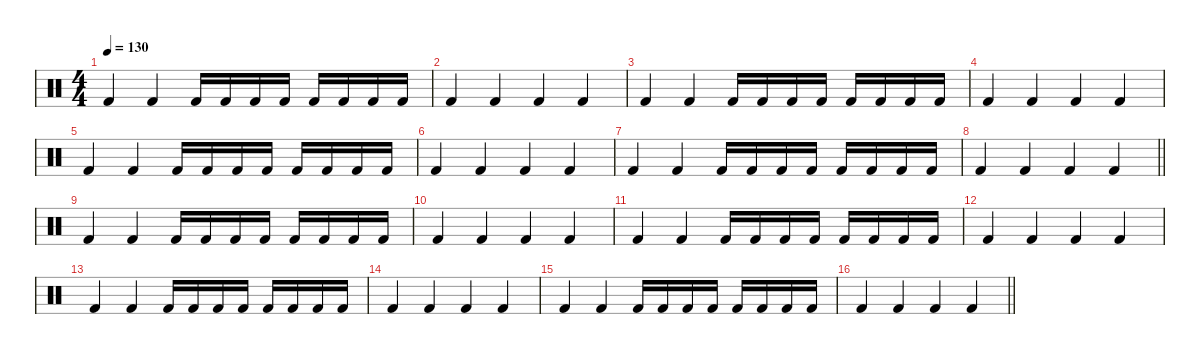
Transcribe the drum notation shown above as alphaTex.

\defaultSystemsLayout 4
\hideDynamics
\bracketExtendMode nobrackets
\singleTrackTrackNamePolicy hidden
\multiTrackTrackNamePolicy hidden
\otherSystemsTrackNameOrientation horizontal
\track ("Percussion" "drm.") {defaultSystemsLayout 4 instrument percussion}
\staff {score}
\articulation defaults
\ts (4 4)
\beaming (8 2 2 2 2)
\tempo 130
\clef neutral
\ks c "Kick (hit) 2".4{dy f beam Up} "Kick (hit) 2".4{beam Up} "Kick (hit) 2".16{beam Up} "Kick (hit) 2".16{beam Up} "Kick (hit) 2".16{beam Up} "Kick (hit) 2".16{beam Up} "Kick (hit) 2".16{beam Up} "Kick (hit) 2".16{beam Up} "Kick (hit) 2".16{beam Up} "Kick (hit) 2".16{beam Up}
|
"Kick (hit) 2".4{beam Up} "Kick (hit) 2".4{beam Up} "Kick (hit) 2".4{beam Up} "Kick (hit) 2".4{beam Up} |
"Kick (hit) 2".4{beam Up} "Kick (hit) 2".4{beam Up} "Kick (hit) 2".16{beam Up} "Kick (hit) 2".16{beam Up} "Kick (hit) 2".16{beam Up} "Kick (hit) 2".16{beam Up} "Kick (hit) 2".16{beam Up} "Kick (hit) 2".16{beam Up} "Kick (hit) 2".16{beam Up} "Kick (hit) 2".16{beam Up} |
"Kick (hit) 2".4{beam Up} "Kick (hit) 2".4{beam Up} "Kick (hit) 2".4{beam Up} "Kick (hit) 2".4{beam Up} |
"Kick (hit) 2".4{beam Up} "Kick (hit) 2".4{beam Up} "Kick (hit) 2".16{beam Up} "Kick (hit) 2".16{beam Up} "Kick (hit) 2".16{beam Up} "Kick (hit) 2".16{beam Up} "Kick (hit) 2".16{beam Up} "Kick (hit) 2".16{beam Up} "Kick (hit) 2".16{beam Up} "Kick (hit) 2".16{beam Up} |
"Kick (hit) 2".4{beam Up} "Kick (hit) 2".4{beam Up} "Kick (hit) 2".4{beam Up} "Kick (hit) 2".4{beam Up} |
"Kick (hit) 2".4{beam Up} "Kick (hit) 2".4{beam Up} "Kick (hit) 2".16{beam Up} "Kick (hit) 2".16{beam Up} "Kick (hit) 2".16{beam Up} "Kick (hit) 2".16{beam Up} "Kick (hit) 2".16{beam Up} "Kick (hit) 2".16{beam Up} "Kick (hit) 2".16{beam Up} "Kick (hit) 2".16{beam Up} |
\barLineRight lightlight "Kick (hit) 2".4{beam Up} "Kick (hit) 2".4{beam Up} "Kick (hit) 2".4{beam Up} "Kick (hit) 2".4{beam Up}
|
"Kick (hit) 2".4{beam Up} "Kick (hit) 2".4{beam Up} "Kick (hit) 2".16{beam Up} "Kick (hit) 2".16{beam Up} "Kick (hit) 2".16{beam Up} "Kick (hit) 2".16{beam Up} "Kick (hit) 2".16{beam Up} "Kick (hit) 2".16{beam Up} "Kick (hit) 2".16{beam Up} "Kick (hit) 2".16{beam Up} |
"Kick (hit) 2".4{beam Up} "Kick (hit) 2".4{beam Up} "Kick (hit) 2".4{beam Up} "Kick (hit) 2".4{beam Up} |
"Kick (hit) 2".4{beam Up} "Kick (hit) 2".4{beam Up} "Kick (hit) 2".16{beam Up} "Kick (hit) 2".16{beam Up} "Kick (hit) 2".16{beam Up} "Kick (hit) 2".16{beam Up} "Kick (hit) 2".16{beam Up} "Kick (hit) 2".16{beam Up} "Kick (hit) 2".16{beam Up} "Kick (hit) 2".16{beam Up} |
"Kick (hit) 2".4{beam Up} "Kick (hit) 2".4{beam Up} "Kick (hit) 2".4{beam Up} "Kick (hit) 2".4{beam Up} |
"Kick (hit) 2".4{beam Up} "Kick (hit) 2".4{beam Up} "Kick (hit) 2".16{beam Up} "Kick (hit) 2".16{beam Up} "Kick (hit) 2".16{beam Up} "Kick (hit) 2".16{beam Up} "Kick (hit) 2".16{beam Up} "Kick (hit) 2".16{beam Up} "Kick (hit) 2".16{beam Up} "Kick (hit) 2".16{beam Up} |
"Kick (hit) 2".4{beam Up} "Kick (hit) 2".4{beam Up} "Kick (hit) 2".4{beam Up} "Kick (hit) 2".4{beam Up} |
"Kick (hit) 2".4{beam Up} "Kick (hit) 2".4{beam Up} "Kick (hit) 2".16{beam Up} "Kick (hit) 2".16{beam Up} "Kick (hit) 2".16{beam Up} "Kick (hit) 2".16{beam Up} "Kick (hit) 2".16{beam Up} "Kick (hit) 2".16{beam Up} "Kick (hit) 2".16{beam Up} "Kick (hit) 2".16{beam Up} |
\barLineRight lightlight "Kick (hit) 2".4{beam Up} "Kick (hit) 2".4{beam Up} "Kick (hit) 2".4{beam Up} "Kick (hit) 2".4{beam Up}
